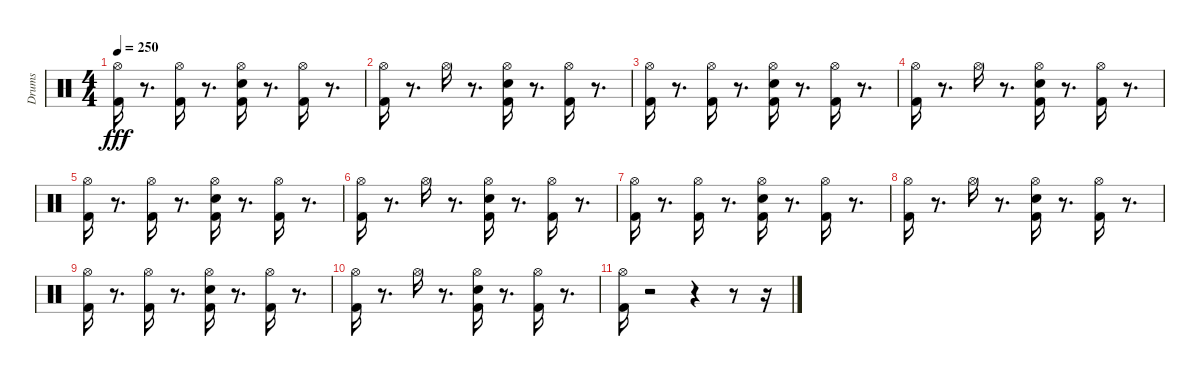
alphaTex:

\track ("Drums" "Drums") {instrument percussion}
\staff {score}
\articulation defaults
\ts (4 4)
\tempo 250
\clef neutral
\ks c
("Hi-Hat (open)" "Kick (hit) 2").16{dy fff} r.8{d} ("Kick (hit) 2" "Hi-Hat (open)").16 r.8{d} ("Kick (hit) 2" "Electric Snare (hit)" "Hi-Hat (open)").16 r.8{d} ("Kick (hit) 2" "Hi-Hat (open)").16 r.8{d} |
("Kick (hit) 2" "Hi-Hat (open)").16 r.8{d} "Hi-Hat (open)".16 r.8{d} ("Kick (hit) 2" "Electric Snare (hit)" "Hi-Hat (open)").16 r.8{d} ("Kick (hit) 2" "Hi-Hat (open)").16 r.8{d} |
("Hi-Hat (open)" "Kick (hit) 2").16 r.8{d} ("Kick (hit) 2" "Hi-Hat (open)").16 r.8{d} ("Kick (hit) 2" "Electric Snare (hit)" "Hi-Hat (open)").16 r.8{d} ("Kick (hit) 2" "Hi-Hat (open)").16 r.8{d} |
("Kick (hit) 2" "Hi-Hat (open)").16 r.8{d} "Hi-Hat (open)".16 r.8{d} ("Kick (hit) 2" "Electric Snare (hit)" "Hi-Hat (open)").16 r.8{d} ("Kick (hit) 2" "Hi-Hat (open)").16 r.8{d} |
("Hi-Hat (open)" "Kick (hit) 2").16 r.8{d} ("Kick (hit) 2" "Hi-Hat (open)").16 r.8{d} ("Kick (hit) 2" "Electric Snare (hit)" "Hi-Hat (open)").16 r.8{d} ("Kick (hit) 2" "Hi-Hat (open)").16 r.8{d} |
("Kick (hit) 2" "Hi-Hat (open)").16 r.8{d} "Hi-Hat (open)".16 r.8{d} ("Kick (hit) 2" "Electric Snare (hit)" "Hi-Hat (open)").16 r.8{d} ("Kick (hit) 2" "Hi-Hat (open)").16 r.8{d} |
("Hi-Hat (open)" "Kick (hit) 2").16 r.8{d} ("Kick (hit) 2" "Hi-Hat (open)").16 r.8{d} ("Kick (hit) 2" "Electric Snare (hit)" "Hi-Hat (open)").16 r.8{d} ("Kick (hit) 2" "Hi-Hat (open)").16 r.8{d} |
("Kick (hit) 2" "Hi-Hat (open)").16 r.8{d} "Hi-Hat (open)".16 r.8{d} ("Kick (hit) 2" "Electric Snare (hit)" "Hi-Hat (open)").16 r.8{d} ("Kick (hit) 2" "Hi-Hat (open)").16 r.8{d} |
("Hi-Hat (open)" "Kick (hit) 2").16 r.8{d} ("Kick (hit) 2" "Hi-Hat (open)").16 r.8{d} ("Kick (hit) 2" "Electric Snare (hit)" "Hi-Hat (open)").16 r.8{d} ("Kick (hit) 2" "Hi-Hat (open)").16 r.8{d} |
("Kick (hit) 2" "Hi-Hat (open)").16 r.8{d} "Hi-Hat (open)".16 r.8{d} ("Kick (hit) 2" "Electric Snare (hit)" "Hi-Hat (open)").16 r.8{d} ("Kick (hit) 2" "Hi-Hat (open)").16 r.8{d} |
("Hi-Hat (open)" "Kick (hit) 2").16 r.2 r.4 r.8 r.16
